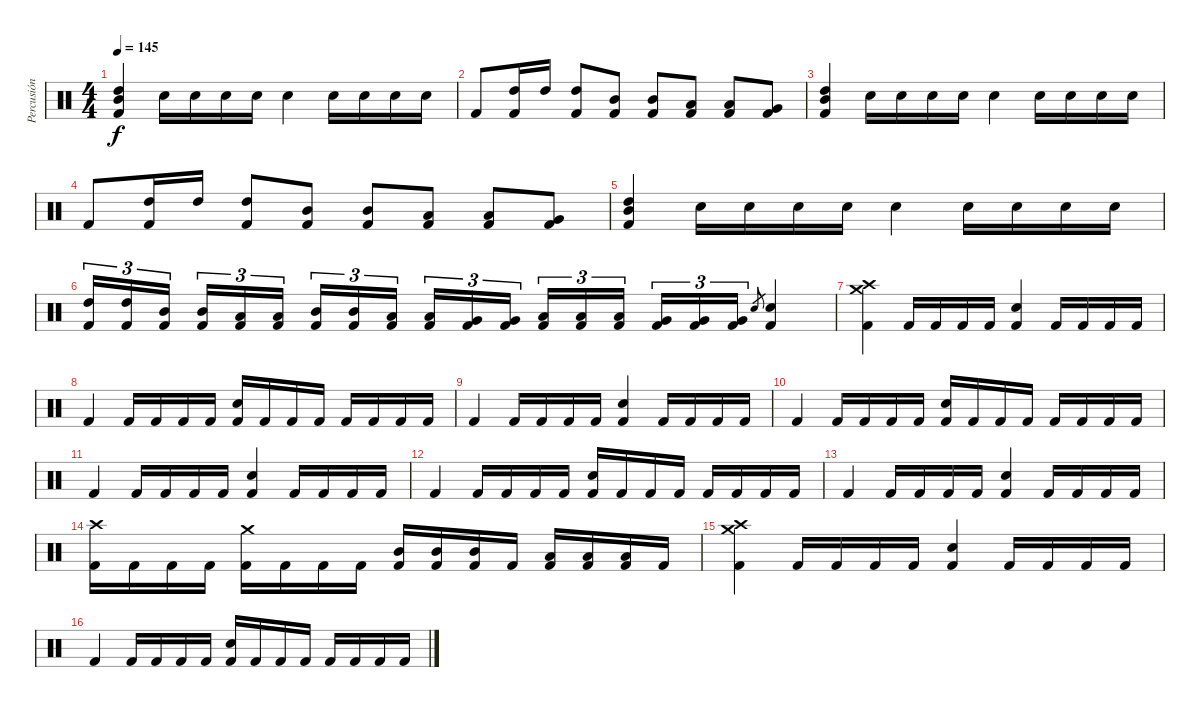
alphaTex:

\track ("Percusión" "Percusión") {instrument percussion}
\staff {score}
\articulation defaults
\ts (4 4)
\tempo 145
\clef neutral
\ks c
("High Tom (hit)" "Mid Tom (hit)" "Kick (hit) 2").4{dy f} "Snare (hit) 2".16 "Snare (hit) 2".16 "Snare (hit) 2".16 "Snare (hit) 2".16 "Snare (hit) 2".4 "Snare (hit) 2".16 "Snare (hit) 2".16 "Snare (hit) 2".16 "Snare (hit) 2".16 |
"Kick (hit) 2".8 ("High Tom (hit)" "Kick (hit) 2").16 "High Tom (hit)".16 ("High Tom (hit)" "Kick (hit) 2").8 ("Mid Tom (hit)" "Kick (hit) 2").8 ("Mid Tom (hit)" "Kick (hit) 2").8 ("Low Tom (hit)" "Kick (hit) 2").8 ("Low Tom (hit)" "Kick (hit) 2").8 ("Very Low Tom (hit)" "Kick (hit) 2").8 |
("High Tom (hit)" "Mid Tom (hit)" "Kick (hit) 2").4 "Snare (hit) 2".16 "Snare (hit) 2".16 "Snare (hit) 2".16 "Snare (hit) 2".16 "Snare (hit) 2".4 "Snare (hit) 2".16 "Snare (hit) 2".16 "Snare (hit) 2".16 "Snare (hit) 2".16 |
"Kick (hit) 2".8 ("High Tom (hit)" "Kick (hit) 2").16 "High Tom (hit)".16 ("High Tom (hit)" "Kick (hit) 2").8 ("Mid Tom (hit)" "Kick (hit) 2").8 ("Mid Tom (hit)" "Kick (hit) 2").8 ("Low Tom (hit)" "Kick (hit) 2").8 ("Low Tom (hit)" "Kick (hit) 2").8 ("Very Low Tom (hit)" "Kick (hit) 2").8 |
("High Tom (hit)" "Mid Tom (hit)" "Kick (hit) 2").4 "Snare (hit) 2".16 "Snare (hit) 2".16 "Snare (hit) 2".16 "Snare (hit) 2".16 "Snare (hit) 2".4 "Snare (hit) 2".16 "Snare (hit) 2".16 "Snare (hit) 2".16 "Snare (hit) 2".16 |
("High Tom (hit)" "Kick (hit) 2").16{tu (3 2)} ("High Tom (hit)" "Kick (hit) 2").16{tu (3 2)} ("Mid Tom (hit)" "Kick (hit) 2").16{tu (3 2) beam splitsecondary} ("Mid Tom (hit)" "Kick (hit) 2").16{tu (3 2)} ("Low Tom (hit)" "Kick (hit) 2").16{tu (3 2)} ("Low Tom (hit)" "Kick (hit) 2").16{tu (3 2)} ("Mid Tom (hit)" "Kick (hit) 2").16{tu (3 2)} ("Mid Tom (hit)" "Kick (hit) 2").16{tu (3 2)} ("Low Tom (hit)" "Kick (hit) 2").16{tu (3 2) beam splitsecondary} ("Low Tom (hit)" "Kick (hit) 2").16{tu (3 2)} ("Very Low Tom (hit)" "Kick (hit) 2").16{tu (3 2)} ("Very Low Tom (hit)" "Kick (hit) 2").16{tu (3 2)} ("Low Tom (hit)" "Kick (hit) 2").16{tu (3 2)} ("Low Tom (hit)" "Kick (hit) 2").16{tu (3 2)} ("Low Tom (hit)" "Kick (hit) 2").16{tu (3 2) beam splitsecondary} ("Very Low Tom (hit)" "Kick (hit) 2").16{tu (3 2)} ("Very Low Tom (hit)" "Kick (hit) 2").16{tu (3 2)} ("Very Low Tom (hit)" "Kick (hit) 2").16{tu (3 2)} "Snare (hit) 2".8{gr} ("Snare (hit) 2" "Kick (hit) 2").4 |
("Crash medium (hit)" "Crash high (hit)" "Kick (hit) 2").4 "Kick (hit) 2".16 "Kick (hit) 2".16 "Kick (hit) 2".16 "Kick (hit) 2".16 ("Snare (hit) 2" "Kick (hit) 2").4 "Kick (hit) 2".16 "Kick (hit) 2".16 "Kick (hit) 2".16 "Kick (hit) 2".16 |
"Kick (hit) 2".4 "Kick (hit) 2".16 "Kick (hit) 2".16 "Kick (hit) 2".16 "Kick (hit) 2".16 ("Snare (hit) 2" "Kick (hit) 2").16 "Kick (hit) 2".16 "Kick (hit) 2".16 "Kick (hit) 2".16 "Kick (hit) 2".16 "Kick (hit) 2".16 "Kick (hit) 2".16 "Kick (hit) 2".16 |
"Kick (hit) 2".4 "Kick (hit) 2".16 "Kick (hit) 2".16 "Kick (hit) 2".16 "Kick (hit) 2".16 ("Snare (hit) 2" "Kick (hit) 2").4 "Kick (hit) 2".16 "Kick (hit) 2".16 "Kick (hit) 2".16 "Kick (hit) 2".16 |
"Kick (hit) 2".4 "Kick (hit) 2".16 "Kick (hit) 2".16 "Kick (hit) 2".16 "Kick (hit) 2".16 ("Snare (hit) 2" "Kick (hit) 2").16 "Kick (hit) 2".16 "Kick (hit) 2".16 "Kick (hit) 2".16 "Kick (hit) 2".16 "Kick (hit) 2".16 "Kick (hit) 2".16 "Kick (hit) 2".16 |
"Kick (hit) 2".4 "Kick (hit) 2".16 "Kick (hit) 2".16 "Kick (hit) 2".16 "Kick (hit) 2".16 ("Snare (hit) 2" "Kick (hit) 2").4 "Kick (hit) 2".16 "Kick (hit) 2".16 "Kick (hit) 2".16 "Kick (hit) 2".16 |
"Kick (hit) 2".4 "Kick (hit) 2".16 "Kick (hit) 2".16 "Kick (hit) 2".16 "Kick (hit) 2".16 ("Snare (hit) 2" "Kick (hit) 2").16 "Kick (hit) 2".16 "Kick (hit) 2".16 "Kick (hit) 2".16 "Kick (hit) 2".16 "Kick (hit) 2".16 "Kick (hit) 2".16 "Kick (hit) 2".16 |
"Kick (hit) 2".4 "Kick (hit) 2".16 "Kick (hit) 2".16 "Kick (hit) 2".16 "Kick (hit) 2".16 ("Snare (hit) 2" "Kick (hit) 2").4 "Kick (hit) 2".16 "Kick (hit) 2".16 "Kick (hit) 2".16 "Kick (hit) 2".16 |
("Crash high (hit)" "Kick (hit) 2").16 "Kick (hit) 2".16 "Kick (hit) 2".16 "Kick (hit) 2".16 ("Crash medium (hit)" "Kick (hit) 2").16 "Kick (hit) 2".16 "Kick (hit) 2".16 "Kick (hit) 2".16 ("Mid Tom (hit)" "Kick (hit) 2").16 ("Mid Tom (hit)" "Kick (hit) 2").16 ("Mid Tom (hit)" "Kick (hit) 2").16 "Kick (hit) 2".16 ("Low Tom (hit)" "Kick (hit) 2").16 ("Low Tom (hit)" "Kick (hit) 2").16 ("Low Tom (hit)" "Kick (hit) 2").16 "Kick (hit) 2".16 |
("Crash medium (hit)" "Crash high (hit)" "Kick (hit) 2").4 "Kick (hit) 2".16 "Kick (hit) 2".16 "Kick (hit) 2".16 "Kick (hit) 2".16 ("Snare (hit) 2" "Kick (hit) 2").4 "Kick (hit) 2".16 "Kick (hit) 2".16 "Kick (hit) 2".16 "Kick (hit) 2".16 |
"Kick (hit) 2".4 "Kick (hit) 2".16 "Kick (hit) 2".16 "Kick (hit) 2".16 "Kick (hit) 2".16 ("Snare (hit) 2" "Kick (hit) 2").16 "Kick (hit) 2".16 "Kick (hit) 2".16 "Kick (hit) 2".16 "Kick (hit) 2".16 "Kick (hit) 2".16 "Kick (hit) 2".16 "Kick (hit) 2".16
